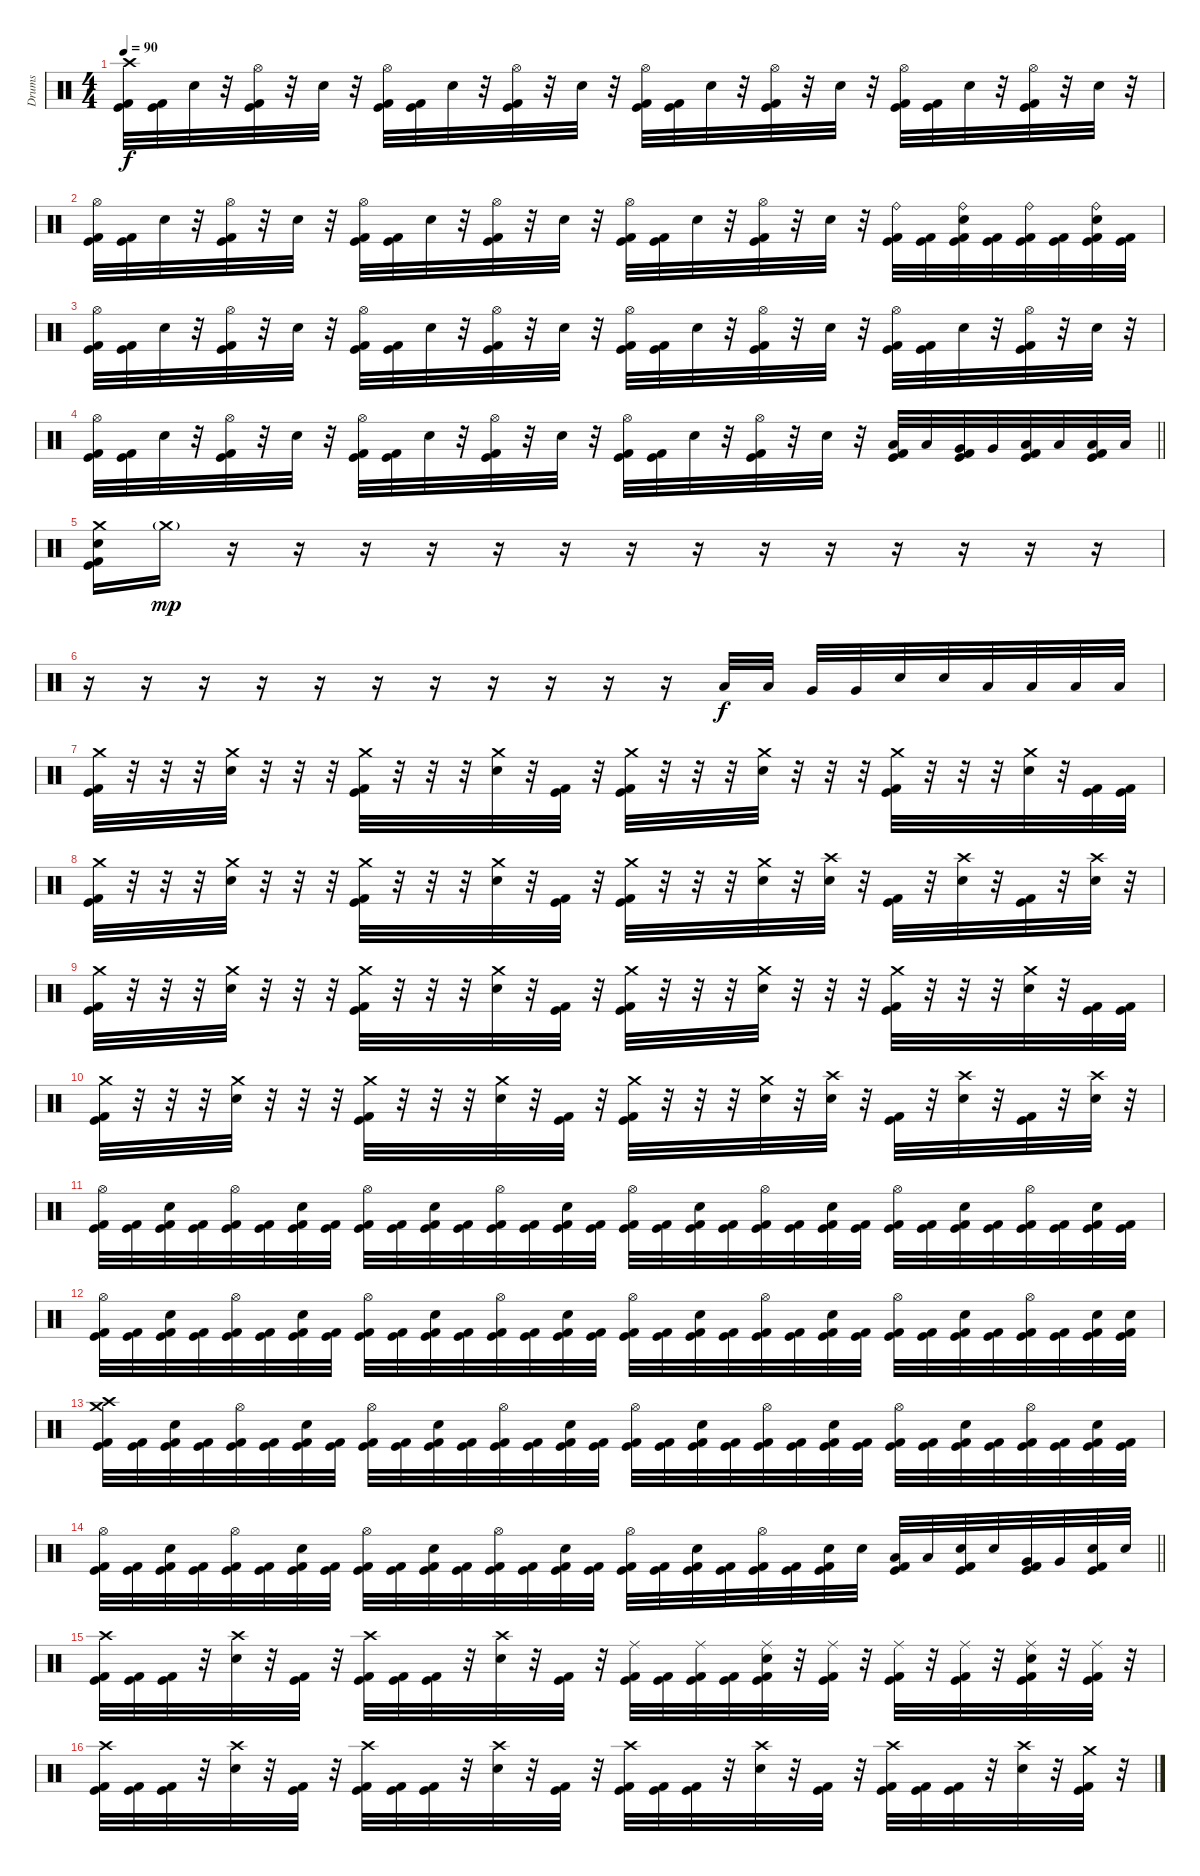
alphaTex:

\track ("Drums" "Drums") {instrument percussion}
\staff {score}
\articulation defaults
\ts (4 4)
\tempo 90
\clef neutral
\ks c
("Crash high (hit)" "Kick (hit)" "Kick (hit) 2").32{dy f} ("Kick (hit)" "Kick (hit) 2").32 "Electric Snare (hit)".32 r.32 ("Hi-Hat (open)" "Kick (hit)" "Kick (hit) 2").32 r.32 "Electric Snare (hit)".32 r.32 ("Hi-Hat (open)" "Kick (hit)" "Kick (hit) 2").32 ("Kick (hit)" "Kick (hit) 2").32 "Electric Snare (hit)".32 r.32 ("Hi-Hat (open)" "Kick (hit)" "Kick (hit) 2").32 r.32 "Electric Snare (hit)".32 r.32 ("Hi-Hat (open)" "Kick (hit)" "Kick (hit) 2").32 ("Kick (hit)" "Kick (hit) 2").32 "Electric Snare (hit)".32 r.32 ("Hi-Hat (open)" "Kick (hit)" "Kick (hit) 2").32 r.32 "Electric Snare (hit)".32 r.32 ("Hi-Hat (open)" "Kick (hit)" "Kick (hit) 2").32 ("Kick (hit)" "Kick (hit) 2").32 "Electric Snare (hit)".32 r.32 ("Hi-Hat (open)" "Kick (hit)" "Kick (hit) 2").32 r.32 "Electric Snare (hit)".32 r.32 |
("Hi-Hat (open)" "Kick (hit)" "Kick (hit) 2").32 ("Kick (hit)" "Kick (hit) 2").32 "Electric Snare (hit)".32 r.32 ("Hi-Hat (open)" "Kick (hit)" "Kick (hit) 2").32 r.32 "Electric Snare (hit)".32 r.32 ("Hi-Hat (open)" "Kick (hit)" "Kick (hit) 2").32 ("Kick (hit)" "Kick (hit) 2").32 "Electric Snare (hit)".32 r.32 ("Hi-Hat (open)" "Kick (hit)" "Kick (hit) 2").32 r.32 "Electric Snare (hit)".32 r.32 ("Hi-Hat (open)" "Kick (hit)" "Kick (hit) 2").32 ("Kick (hit)" "Kick (hit) 2").32 "Electric Snare (hit)".32 r.32 ("Hi-Hat (open)" "Kick (hit)" "Kick (hit) 2").32 r.32 "Electric Snare (hit)".32 r.32 ("Ride (bell)" "Kick (hit)" "Kick (hit) 2").32 ("Kick (hit)" "Kick (hit) 2").32 ("Ride (bell)" "Electric Snare (hit)" "Kick (hit)" "Kick (hit) 2").32 ("Kick (hit)" "Kick (hit) 2").32 ("Ride (bell)" "Kick (hit)" "Kick (hit) 2").32 ("Kick (hit)" "Kick (hit) 2").32 ("Ride (bell)" "Electric Snare (hit)" "Kick (hit)" "Kick (hit) 2").32 ("Kick (hit)" "Kick (hit) 2").32 |
("Hi-Hat (open)" "Kick (hit)" "Kick (hit) 2").32 ("Kick (hit)" "Kick (hit) 2").32 "Electric Snare (hit)".32 r.32 ("Hi-Hat (open)" "Kick (hit)" "Kick (hit) 2").32 r.32 "Electric Snare (hit)".32 r.32 ("Hi-Hat (open)" "Kick (hit)" "Kick (hit) 2").32 ("Kick (hit)" "Kick (hit) 2").32 "Electric Snare (hit)".32 r.32 ("Hi-Hat (open)" "Kick (hit)" "Kick (hit) 2").32 r.32 "Electric Snare (hit)".32 r.32 ("Hi-Hat (open)" "Kick (hit)" "Kick (hit) 2").32 ("Kick (hit)" "Kick (hit) 2").32 "Electric Snare (hit)".32 r.32 ("Hi-Hat (open)" "Kick (hit)" "Kick (hit) 2").32 r.32 "Electric Snare (hit)".32 r.32 ("Hi-Hat (open)" "Kick (hit)" "Kick (hit) 2").32 ("Kick (hit)" "Kick (hit) 2").32 "Electric Snare (hit)".32 r.32 ("Hi-Hat (open)" "Kick (hit)" "Kick (hit) 2").32 r.32 "Electric Snare (hit)".32 r.32 |
\barLineRight lightlight
("Hi-Hat (open)" "Kick (hit)" "Kick (hit) 2").32 ("Kick (hit)" "Kick (hit) 2").32 "Electric Snare (hit)".32 r.32 ("Hi-Hat (open)" "Kick (hit)" "Kick (hit) 2").32 r.32 "Electric Snare (hit)".32 r.32 ("Hi-Hat (open)" "Kick (hit)" "Kick (hit) 2").32 ("Kick (hit)" "Kick (hit) 2").32 "Electric Snare (hit)".32 r.32 ("Hi-Hat (open)" "Kick (hit)" "Kick (hit) 2").32 r.32 "Electric Snare (hit)".32 r.32 ("Hi-Hat (open)" "Kick (hit)" "Kick (hit) 2").32 ("Kick (hit)" "Kick (hit) 2").32 "Electric Snare (hit)".32 r.32 ("Hi-Hat (open)" "Kick (hit)" "Kick (hit) 2").32 r.32 "Electric Snare (hit)".32 r.32 ("Low Tom (hit)" "Kick (hit)" "Kick (hit) 2").32 "Low Tom (hit)".32 ("Very Low Tom (hit)" "Kick (hit)" "Kick (hit) 2").32 "Very Low Tom (hit)".32 ("Low Tom (hit)" "Kick (hit)" "Kick (hit) 2").32 "Low Tom (hit)".32 ("Low Floor Tom (hit)" "Kick (hit)" "Kick (hit) 2").32 "Low Floor Tom (hit)".32 |
("Crash medium (hit)" "Electric Snare (hit)" "Kick (hit)" "Kick (hit) 2").16 "Crash medium (hit)"{g}.16{dy mp} r.16 r.16 r.16 r.16 r.16 r.16 r.16 r.16 r.16 r.16 r.16 r.16 r.16 r.16 |
r.16 r.16 r.16 r.16 r.16 r.16 r.16 r.16 r.16 r.16 r.16 "Low Tom (hit)".32{dy f} "Low Tom (hit)".32 "Very Low Tom (hit)".32 "Very Low Tom (hit)".32 "Electric Snare (hit)".32 "Electric Snare (hit)".32 "Low Tom (hit)".32 "Low Tom (hit)".32 "Low Floor Tom (hit)".32 "Low Floor Tom (hit)".32 |
("Crash medium (hit)" "Kick (hit)" "Kick (hit) 2").32 r.32 r.32 r.32 ("Crash medium (hit)" "Electric Snare (hit)").32 r.32 r.32 r.32 ("Crash medium (hit)" "Kick (hit)" "Kick (hit) 2").32 r.32 r.32 r.32 ("Crash medium (hit)" "Electric Snare (hit)").32 r.32 ("Kick (hit)" "Kick (hit) 2").32 r.32 ("Crash medium (hit)" "Kick (hit)" "Kick (hit) 2").32 r.32 r.32 r.32 ("Crash medium (hit)" "Electric Snare (hit)").32 r.32 r.32 r.32 ("Crash medium (hit)" "Kick (hit)" "Kick (hit) 2").32 r.32 r.32 r.32 ("Crash medium (hit)" "Electric Snare (hit)").32 r.32 ("Kick (hit)" "Kick (hit) 2").32 ("Kick (hit)" "Kick (hit) 2").32 |
("Crash medium (hit)" "Kick (hit)" "Kick (hit) 2").32 r.32 r.32 r.32 ("Crash medium (hit)" "Electric Snare (hit)").32 r.32 r.32 r.32 ("Crash medium (hit)" "Kick (hit)" "Kick (hit) 2").32 r.32 r.32 r.32 ("Crash medium (hit)" "Electric Snare (hit)").32 r.32 ("Kick (hit)" "Kick (hit) 2").32 r.32 ("Crash medium (hit)" "Kick (hit)" "Kick (hit) 2").32 r.32 r.32 r.32 ("Crash medium (hit)" "Electric Snare (hit)").32 r.32 ("Crash high (hit)" "Electric Snare (hit)").32 r.32 ("Kick (hit)" "Kick (hit) 2").32 r.32 ("Crash high (hit)" "Electric Snare (hit)").32 r.32 ("Kick (hit)" "Kick (hit) 2").32 r.32 ("Crash high (hit)" "Electric Snare (hit)").32 r.32 |
("Crash medium (hit)" "Kick (hit)" "Kick (hit) 2").32 r.32 r.32 r.32 ("Crash medium (hit)" "Electric Snare (hit)").32 r.32 r.32 r.32 ("Crash medium (hit)" "Kick (hit)" "Kick (hit) 2").32 r.32 r.32 r.32 ("Crash medium (hit)" "Electric Snare (hit)").32 r.32 ("Kick (hit)" "Kick (hit) 2").32 r.32 ("Crash medium (hit)" "Kick (hit)" "Kick (hit) 2").32 r.32 r.32 r.32 ("Crash medium (hit)" "Electric Snare (hit)").32 r.32 r.32 r.32 ("Crash medium (hit)" "Kick (hit)" "Kick (hit) 2").32 r.32 r.32 r.32 ("Crash medium (hit)" "Electric Snare (hit)").32 r.32 ("Kick (hit)" "Kick (hit) 2").32 ("Kick (hit)" "Kick (hit) 2").32 |
("Crash medium (hit)" "Kick (hit)" "Kick (hit) 2").32 r.32 r.32 r.32 ("Crash medium (hit)" "Electric Snare (hit)").32 r.32 r.32 r.32 ("Crash medium (hit)" "Kick (hit)" "Kick (hit) 2").32 r.32 r.32 r.32 ("Crash medium (hit)" "Electric Snare (hit)").32 r.32 ("Kick (hit)" "Kick (hit) 2").32 r.32 ("Crash medium (hit)" "Kick (hit)" "Kick (hit) 2").32 r.32 r.32 r.32 ("Crash medium (hit)" "Electric Snare (hit)").32 r.32 ("Crash high (hit)" "Electric Snare (hit)").32 r.32 ("Kick (hit)" "Kick (hit) 2").32 r.32 ("Crash high (hit)" "Electric Snare (hit)").32 r.32 ("Kick (hit)" "Kick (hit) 2").32 r.32 ("Crash high (hit)" "Electric Snare (hit)").32 r.32 |
("Hi-Hat (open)" "Kick (hit)" "Kick (hit) 2").32 ("Kick (hit)" "Kick (hit) 2").32 ("Electric Snare (hit)" "Kick (hit)" "Kick (hit) 2").32 ("Kick (hit)" "Kick (hit) 2").32 ("Hi-Hat (open)" "Kick (hit)" "Kick (hit) 2").32 ("Kick (hit)" "Kick (hit) 2").32 ("Electric Snare (hit)" "Kick (hit)" "Kick (hit) 2").32 ("Kick (hit)" "Kick (hit) 2").32 ("Hi-Hat (open)" "Kick (hit)" "Kick (hit) 2").32 ("Kick (hit)" "Kick (hit) 2").32 ("Electric Snare (hit)" "Kick (hit)" "Kick (hit) 2").32 ("Kick (hit)" "Kick (hit) 2").32 ("Hi-Hat (open)" "Kick (hit)" "Kick (hit) 2").32 ("Kick (hit)" "Kick (hit) 2").32 ("Electric Snare (hit)" "Kick (hit)" "Kick (hit) 2").32 ("Kick (hit)" "Kick (hit) 2").32 ("Hi-Hat (open)" "Kick (hit)" "Kick (hit) 2").32 ("Kick (hit)" "Kick (hit) 2").32 ("Electric Snare (hit)" "Kick (hit)" "Kick (hit) 2").32 ("Kick (hit)" "Kick (hit) 2").32 ("Hi-Hat (open)" "Kick (hit)" "Kick (hit) 2").32 ("Kick (hit)" "Kick (hit) 2").32 ("Electric Snare (hit)" "Kick (hit)" "Kick (hit) 2").32 ("Kick (hit)" "Kick (hit) 2").32 ("Hi-Hat (open)" "Kick (hit)" "Kick (hit) 2").32 ("Kick (hit)" "Kick (hit) 2").32 ("Electric Snare (hit)" "Kick (hit)" "Kick (hit) 2").32 ("Kick (hit)" "Kick (hit) 2").32 ("Hi-Hat (open)" "Kick (hit)" "Kick (hit) 2").32 ("Kick (hit)" "Kick (hit) 2").32 ("Electric Snare (hit)" "Kick (hit)" "Kick (hit) 2").32 ("Kick (hit)" "Kick (hit) 2").32 |
("Hi-Hat (open)" "Kick (hit)" "Kick (hit) 2").32 ("Kick (hit)" "Kick (hit) 2").32 ("Electric Snare (hit)" "Kick (hit)" "Kick (hit) 2").32 ("Kick (hit)" "Kick (hit) 2").32 ("Hi-Hat (open)" "Kick (hit)" "Kick (hit) 2").32 ("Kick (hit)" "Kick (hit) 2").32 ("Electric Snare (hit)" "Kick (hit)" "Kick (hit) 2").32 ("Kick (hit)" "Kick (hit) 2").32 ("Hi-Hat (open)" "Kick (hit)" "Kick (hit) 2").32 ("Kick (hit)" "Kick (hit) 2").32 ("Electric Snare (hit)" "Kick (hit)" "Kick (hit) 2").32 ("Kick (hit)" "Kick (hit) 2").32 ("Hi-Hat (open)" "Kick (hit)" "Kick (hit) 2").32 ("Kick (hit)" "Kick (hit) 2").32 ("Electric Snare (hit)" "Kick (hit)" "Kick (hit) 2").32 ("Kick (hit)" "Kick (hit) 2").32 ("Hi-Hat (open)" "Kick (hit)" "Kick (hit) 2").32 ("Kick (hit)" "Kick (hit) 2").32 ("Electric Snare (hit)" "Kick (hit)" "Kick (hit) 2").32 ("Kick (hit)" "Kick (hit) 2").32 ("Hi-Hat (open)" "Kick (hit)" "Kick (hit) 2").32 ("Kick (hit)" "Kick (hit) 2").32 ("Electric Snare (hit)" "Kick (hit)" "Kick (hit) 2").32 ("Kick (hit)" "Kick (hit) 2").32 ("Hi-Hat (open)" "Kick (hit)" "Kick (hit) 2").32 ("Kick (hit)" "Kick (hit) 2").32 ("Electric Snare (hit)" "Kick (hit)" "Kick (hit) 2").32 ("Kick (hit)" "Kick (hit) 2").32 ("Hi-Hat (open)" "Kick (hit)" "Kick (hit) 2").32 ("Kick (hit)" "Kick (hit) 2").32 ("Electric Snare (hit)" "Kick (hit)" "Kick (hit) 2").32 ("Electric Snare (hit)" "Kick (hit)" "Kick (hit) 2").32 |
("Crash high (hit)" "Crash medium (hit)" "Kick (hit)" "Kick (hit) 2").32 ("Kick (hit)" "Kick (hit) 2").32 ("Electric Snare (hit)" "Kick (hit)" "Kick (hit) 2").32 ("Kick (hit)" "Kick (hit) 2").32 ("Hi-Hat (open)" "Kick (hit)" "Kick (hit) 2").32 ("Kick (hit)" "Kick (hit) 2").32 ("Electric Snare (hit)" "Kick (hit)" "Kick (hit) 2").32 ("Kick (hit)" "Kick (hit) 2").32 ("Hi-Hat (open)" "Kick (hit)" "Kick (hit) 2").32 ("Kick (hit)" "Kick (hit) 2").32 ("Electric Snare (hit)" "Kick (hit)" "Kick (hit) 2").32 ("Kick (hit)" "Kick (hit) 2").32 ("Hi-Hat (open)" "Kick (hit)" "Kick (hit) 2").32 ("Kick (hit)" "Kick (hit) 2").32 ("Electric Snare (hit)" "Kick (hit)" "Kick (hit) 2").32 ("Kick (hit)" "Kick (hit) 2").32 ("Hi-Hat (open)" "Kick (hit)" "Kick (hit) 2").32 ("Kick (hit)" "Kick (hit) 2").32 ("Electric Snare (hit)" "Kick (hit)" "Kick (hit) 2").32 ("Kick (hit)" "Kick (hit) 2").32 ("Hi-Hat (open)" "Kick (hit)" "Kick (hit) 2").32 ("Kick (hit)" "Kick (hit) 2").32 ("Electric Snare (hit)" "Kick (hit)" "Kick (hit) 2").32 ("Kick (hit)" "Kick (hit) 2").32 ("Hi-Hat (open)" "Kick (hit)" "Kick (hit) 2").32 ("Kick (hit)" "Kick (hit) 2").32 ("Electric Snare (hit)" "Kick (hit)" "Kick (hit) 2").32 ("Kick (hit)" "Kick (hit) 2").32 ("Hi-Hat (open)" "Kick (hit)" "Kick (hit) 2").32 ("Kick (hit)" "Kick (hit) 2").32 ("Electric Snare (hit)" "Kick (hit)" "Kick (hit) 2").32 ("Kick (hit)" "Kick (hit) 2").32 |
\barLineRight lightlight
("Hi-Hat (open)" "Kick (hit)" "Kick (hit) 2").32 ("Kick (hit)" "Kick (hit) 2").32 ("Electric Snare (hit)" "Kick (hit)" "Kick (hit) 2").32 ("Kick (hit)" "Kick (hit) 2").32 ("Hi-Hat (open)" "Kick (hit)" "Kick (hit) 2").32 ("Kick (hit)" "Kick (hit) 2").32 ("Electric Snare (hit)" "Kick (hit)" "Kick (hit) 2").32 ("Kick (hit)" "Kick (hit) 2").32 ("Hi-Hat (open)" "Kick (hit)" "Kick (hit) 2").32 ("Kick (hit)" "Kick (hit) 2").32 ("Electric Snare (hit)" "Kick (hit)" "Kick (hit) 2").32 ("Kick (hit)" "Kick (hit) 2").32 ("Hi-Hat (open)" "Kick (hit)" "Kick (hit) 2").32 ("Kick (hit)" "Kick (hit) 2").32 ("Electric Snare (hit)" "Kick (hit)" "Kick (hit) 2").32 ("Kick (hit)" "Kick (hit) 2").32 ("Hi-Hat (open)" "Kick (hit)" "Kick (hit) 2").32 ("Kick (hit)" "Kick (hit) 2").32 ("Electric Snare (hit)" "Kick (hit)" "Kick (hit) 2").32 ("Kick (hit)" "Kick (hit) 2").32 ("Hi-Hat (open)" "Kick (hit)" "Kick (hit) 2").32 ("Kick (hit)" "Kick (hit) 2").32 ("Electric Snare (hit)" "Kick (hit)" "Kick (hit) 2").32 "Electric Snare (hit)".32 ("Low Tom (hit)" "Kick (hit)" "Kick (hit) 2").32 "Low Tom (hit)".32 ("Electric Snare (hit)" "Kick (hit)" "Kick (hit) 2").32 "Electric Snare (hit)".32 ("Very Low Tom (hit)" "Kick (hit)" "Kick (hit) 2").32 "Very Low Tom (hit)".32 ("Electric Snare (hit)" "Kick (hit)" "Kick (hit) 2").32 "Electric Snare (hit)".32 |
("Crash high (hit)" "Kick (hit)" "Kick (hit) 2").32 ("Kick (hit)" "Kick (hit) 2").32 ("Kick (hit)" "Kick (hit) 2").32 r.32 ("Crash high (hit)" "Electric Snare (hit)").32 r.32 ("Kick (hit)" "Kick (hit) 2").32 r.32 ("Crash high (hit)" "Kick (hit)" "Kick (hit) 2").32 ("Kick (hit)" "Kick (hit) 2").32 ("Kick (hit)" "Kick (hit) 2").32 r.32 ("Crash high (hit)" "Electric Snare (hit)").32 r.32 ("Kick (hit)" "Kick (hit) 2").32 r.32 ("Ride (middle)" "Kick (hit)" "Kick (hit) 2").32 ("Kick (hit)" "Kick (hit) 2").32 ("Ride (middle)" "Kick (hit)" "Kick (hit) 2").32 ("Kick (hit)" "Kick (hit) 2").32 ("Ride (middle)" "Electric Snare (hit)" "Kick (hit)" "Kick (hit) 2").32 r.32 ("Ride (middle)" "Kick (hit)" "Kick (hit) 2").32 r.32 ("Ride (middle)" "Kick (hit)" "Kick (hit) 2").32 r.32 ("Ride (middle)" "Kick (hit)" "Kick (hit) 2").32 r.32 ("Ride (middle)" "Electric Snare (hit)" "Kick (hit)" "Kick (hit) 2").32 r.32 ("Ride (middle)" "Kick (hit)" "Kick (hit) 2").32 r.32 |
("Crash high (hit)" "Kick (hit)" "Kick (hit) 2").32 ("Kick (hit)" "Kick (hit) 2").32 ("Kick (hit)" "Kick (hit) 2").32 r.32 ("Crash high (hit)" "Electric Snare (hit)").32 r.32 ("Kick (hit)" "Kick (hit) 2").32 r.32 ("Crash high (hit)" "Kick (hit)" "Kick (hit) 2").32 ("Kick (hit)" "Kick (hit) 2").32 ("Kick (hit)" "Kick (hit) 2").32 r.32 ("Crash high (hit)" "Electric Snare (hit)").32 r.32 ("Kick (hit)" "Kick (hit) 2").32 r.32 ("Crash high (hit)" "Kick (hit)" "Kick (hit) 2").32 ("Kick (hit)" "Kick (hit) 2").32 ("Kick (hit)" "Kick (hit) 2").32 r.32 ("Crash high (hit)" "Electric Snare (hit)").32 r.32 ("Kick (hit)" "Kick (hit) 2").32 r.32 ("Crash high (hit)" "Kick (hit)" "Kick (hit) 2").32 ("Kick (hit)" "Kick (hit) 2").32 ("Kick (hit)" "Kick (hit) 2").32 r.32 ("Crash high (hit)" "Electric Snare (hit)").32 r.32 ("Crash medium (hit)" "Kick (hit)" "Kick (hit) 2").32 r.32
